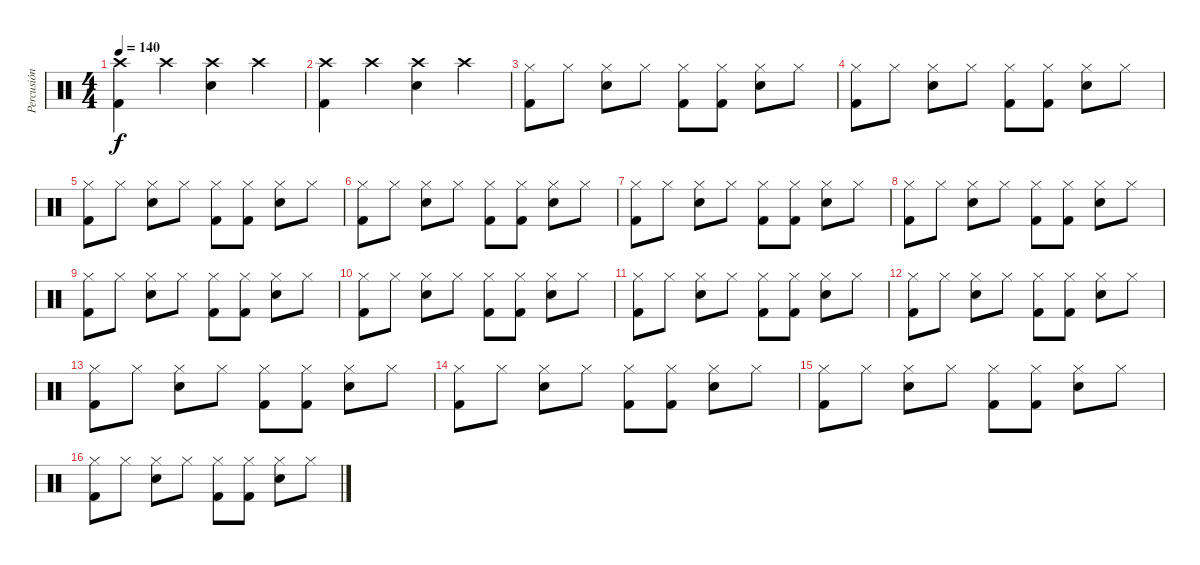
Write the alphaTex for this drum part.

\track ("Percusión" "Percusión") {instrument percussion}
\staff {score}
\articulation defaults
\ts (4 4)
\tempo 140
\clef neutral
\ks c
("Crash high (hit)" "Kick (hit) 2").4{dy f} "Crash high (hit)".4 ("Crash high (hit)" "Snare (hit) 2").4 "Crash high (hit)".4 |
("Crash high (hit)" "Kick (hit) 2").4 "Crash high (hit)".4 ("Crash high (hit)" "Snare (hit) 2").4 "Crash high (hit)".4 |
("Hi-Hat (closed)" "Kick (hit) 2").8 "Hi-Hat (closed)".8 ("Hi-Hat (closed)" "Snare (hit) 2").8 "Hi-Hat (closed)".8 ("Hi-Hat (closed)" "Kick (hit) 2").8 ("Hi-Hat (closed)" "Kick (hit) 2").8 ("Hi-Hat (closed)" "Snare (hit) 2").8 "Hi-Hat (closed)".8 |
("Hi-Hat (closed)" "Kick (hit) 2").8 "Hi-Hat (closed)".8 ("Hi-Hat (closed)" "Snare (hit) 2").8 "Hi-Hat (closed)".8 ("Hi-Hat (closed)" "Kick (hit) 2").8 ("Hi-Hat (closed)" "Kick (hit) 2").8 ("Hi-Hat (closed)" "Snare (hit) 2").8 "Hi-Hat (closed)".8 |
("Hi-Hat (closed)" "Kick (hit) 2").8 "Hi-Hat (closed)".8 ("Hi-Hat (closed)" "Snare (hit) 2").8 "Hi-Hat (closed)".8 ("Hi-Hat (closed)" "Kick (hit) 2").8 ("Hi-Hat (closed)" "Kick (hit) 2").8 ("Hi-Hat (closed)" "Snare (hit) 2").8 "Hi-Hat (closed)".8 |
("Hi-Hat (closed)" "Kick (hit) 2").8 "Hi-Hat (closed)".8 ("Hi-Hat (closed)" "Snare (hit) 2").8 "Hi-Hat (closed)".8 ("Hi-Hat (closed)" "Kick (hit) 2").8 ("Hi-Hat (closed)" "Kick (hit) 2").8 ("Hi-Hat (closed)" "Snare (hit) 2").8 "Hi-Hat (closed)".8 |
("Hi-Hat (closed)" "Kick (hit) 2").8 "Hi-Hat (closed)".8 ("Hi-Hat (closed)" "Snare (hit) 2").8 "Hi-Hat (closed)".8 ("Hi-Hat (closed)" "Kick (hit) 2").8 ("Hi-Hat (closed)" "Kick (hit) 2").8 ("Hi-Hat (closed)" "Snare (hit) 2").8 "Hi-Hat (closed)".8 |
("Hi-Hat (closed)" "Kick (hit) 2").8 "Hi-Hat (closed)".8 ("Hi-Hat (closed)" "Snare (hit) 2").8 "Hi-Hat (closed)".8 ("Hi-Hat (closed)" "Kick (hit) 2").8 ("Hi-Hat (closed)" "Kick (hit) 2").8 ("Hi-Hat (closed)" "Snare (hit) 2").8 "Hi-Hat (closed)".8 |
("Hi-Hat (closed)" "Kick (hit) 2").8 "Hi-Hat (closed)".8 ("Hi-Hat (closed)" "Snare (hit) 2").8 "Hi-Hat (closed)".8 ("Hi-Hat (closed)" "Kick (hit) 2").8 ("Hi-Hat (closed)" "Kick (hit) 2").8 ("Hi-Hat (closed)" "Snare (hit) 2").8 "Hi-Hat (closed)".8 |
("Hi-Hat (closed)" "Kick (hit) 2").8 "Hi-Hat (closed)".8 ("Hi-Hat (closed)" "Snare (hit) 2").8 "Hi-Hat (closed)".8 ("Hi-Hat (closed)" "Kick (hit) 2").8 ("Hi-Hat (closed)" "Kick (hit) 2").8 ("Hi-Hat (closed)" "Snare (hit) 2").8 "Hi-Hat (closed)".8 |
("Hi-Hat (closed)" "Kick (hit) 2").8 "Hi-Hat (closed)".8 ("Hi-Hat (closed)" "Snare (hit) 2").8 "Hi-Hat (closed)".8 ("Hi-Hat (closed)" "Kick (hit) 2").8 ("Hi-Hat (closed)" "Kick (hit) 2").8 ("Hi-Hat (closed)" "Snare (hit) 2").8 "Hi-Hat (closed)".8 |
("Hi-Hat (closed)" "Kick (hit) 2").8 "Hi-Hat (closed)".8 ("Hi-Hat (closed)" "Snare (hit) 2").8 "Hi-Hat (closed)".8 ("Hi-Hat (closed)" "Kick (hit) 2").8 ("Hi-Hat (closed)" "Kick (hit) 2").8 ("Hi-Hat (closed)" "Snare (hit) 2").8 "Hi-Hat (closed)".8 |
("Hi-Hat (closed)" "Kick (hit) 2").8 "Hi-Hat (closed)".8 ("Hi-Hat (closed)" "Snare (hit) 2").8 "Hi-Hat (closed)".8 ("Hi-Hat (closed)" "Kick (hit) 2").8 ("Hi-Hat (closed)" "Kick (hit) 2").8 ("Hi-Hat (closed)" "Snare (hit) 2").8 "Hi-Hat (closed)".8 |
("Hi-Hat (closed)" "Kick (hit) 2").8 "Hi-Hat (closed)".8 ("Hi-Hat (closed)" "Snare (hit) 2").8 "Hi-Hat (closed)".8 ("Hi-Hat (closed)" "Kick (hit) 2").8 ("Hi-Hat (closed)" "Kick (hit) 2").8 ("Hi-Hat (closed)" "Snare (hit) 2").8 "Hi-Hat (closed)".8 |
("Hi-Hat (closed)" "Kick (hit) 2").8 "Hi-Hat (closed)".8 ("Hi-Hat (closed)" "Snare (hit) 2").8 "Hi-Hat (closed)".8 ("Hi-Hat (closed)" "Kick (hit) 2").8 ("Hi-Hat (closed)" "Kick (hit) 2").8 ("Hi-Hat (closed)" "Snare (hit) 2").8 "Hi-Hat (closed)".8 |
("Hi-Hat (closed)" "Kick (hit) 2").8 "Hi-Hat (closed)".8 ("Hi-Hat (closed)" "Snare (hit) 2").8 "Hi-Hat (closed)".8 ("Hi-Hat (closed)" "Kick (hit) 2").8 ("Hi-Hat (closed)" "Kick (hit) 2").8 ("Hi-Hat (closed)" "Snare (hit) 2").8 "Hi-Hat (closed)".8
